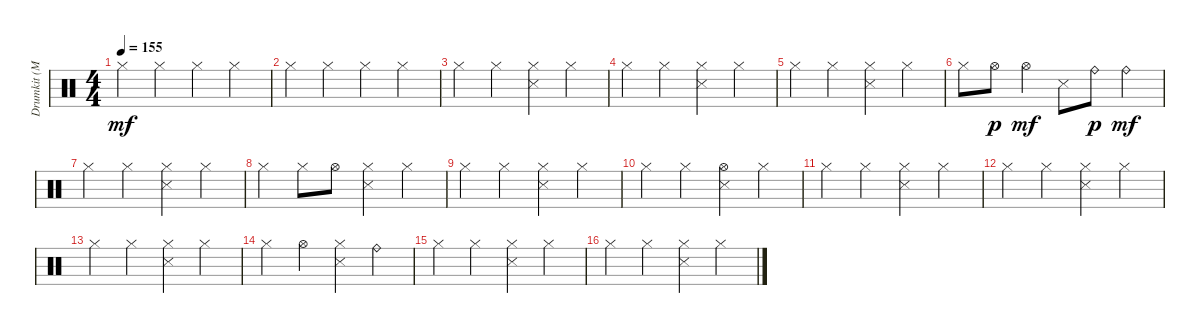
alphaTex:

\track ("Drumkit (McBrain)" "Drumkit (M") {instrument percussion}
\staff {score}
\articulation defaults
\ts (4 4)
\tempo 155
\clef neutral
\ks c "Hi-Hat (closed)".4{dy mf} "Hi-Hat (closed)".4 "Hi-Hat (closed)".4 "Hi-Hat (closed)".4
|
"Hi-Hat (closed)".4 "Hi-Hat (closed)".4 "Hi-Hat (closed)".4 "Hi-Hat (closed)".4 |
"Hi-Hat (closed)".4 "Hi-Hat (closed)".4 ("Hi-Hat (closed)" "Snare (side stick) 3").4 "Hi-Hat (closed)".4 |
"Hi-Hat (closed)".4 "Hi-Hat (closed)".4 ("Hi-Hat (closed)" "Snare (side stick) 3").4 "Hi-Hat (closed)".4 |
"Hi-Hat (closed)".4 "Hi-Hat (closed)".4 ("Hi-Hat (closed)" "Snare (side stick) 3").4 "Hi-Hat (closed)".4 |
"Hi-Hat (closed)".8 "Hi-Hat (open)".8{dy p} "Hi-Hat (open)".4{dy mf} "Snare (side stick) 3".8 "Ride (bell)".8{dy p} "Ride (bell)".4{dy mf} |
"Hi-Hat (closed)".4 "Hi-Hat (closed)".4 ("Hi-Hat (closed)" "Snare (side stick) 3").4 "Hi-Hat (closed)".4 |
"Hi-Hat (closed)".4 "Hi-Hat (closed)".8 "Hi-Hat (open)".8 ("Hi-Hat (closed)" "Snare (side stick) 3").4 "Hi-Hat (closed)".4 |
"Hi-Hat (closed)".4 "Hi-Hat (closed)".4 ("Hi-Hat (closed)" "Snare (side stick) 3").4 "Hi-Hat (closed)".4 |
"Hi-Hat (closed)".4 "Hi-Hat (closed)".4 ("Hi-Hat (open)" "Snare (side stick) 3").4 "Hi-Hat (closed)".4 |
"Hi-Hat (closed)".4 "Hi-Hat (closed)".4 ("Hi-Hat (closed)" "Snare (side stick) 3").4 "Hi-Hat (closed)".4 |
"Hi-Hat (closed)".4 "Hi-Hat (closed)".4 ("Hi-Hat (closed)" "Snare (side stick) 3").4 "Hi-Hat (closed)".4 |
"Hi-Hat (closed)".4 "Hi-Hat (closed)".4 ("Hi-Hat (closed)" "Snare (side stick) 3").4 "Hi-Hat (closed)".4 |
"Hi-Hat (closed)".4 "Hi-Hat (open)".4 ("Hi-Hat (closed)" "Snare (side stick) 3").4 "Ride (bell)".4 |
"Hi-Hat (closed)".4 "Hi-Hat (closed)".4 ("Hi-Hat (closed)" "Snare (side stick) 3").4 "Hi-Hat (closed)".4 |
"Hi-Hat (closed)".4 "Hi-Hat (closed)".4 ("Hi-Hat (closed)" "Snare (side stick) 3").4 "Hi-Hat (closed)".4
